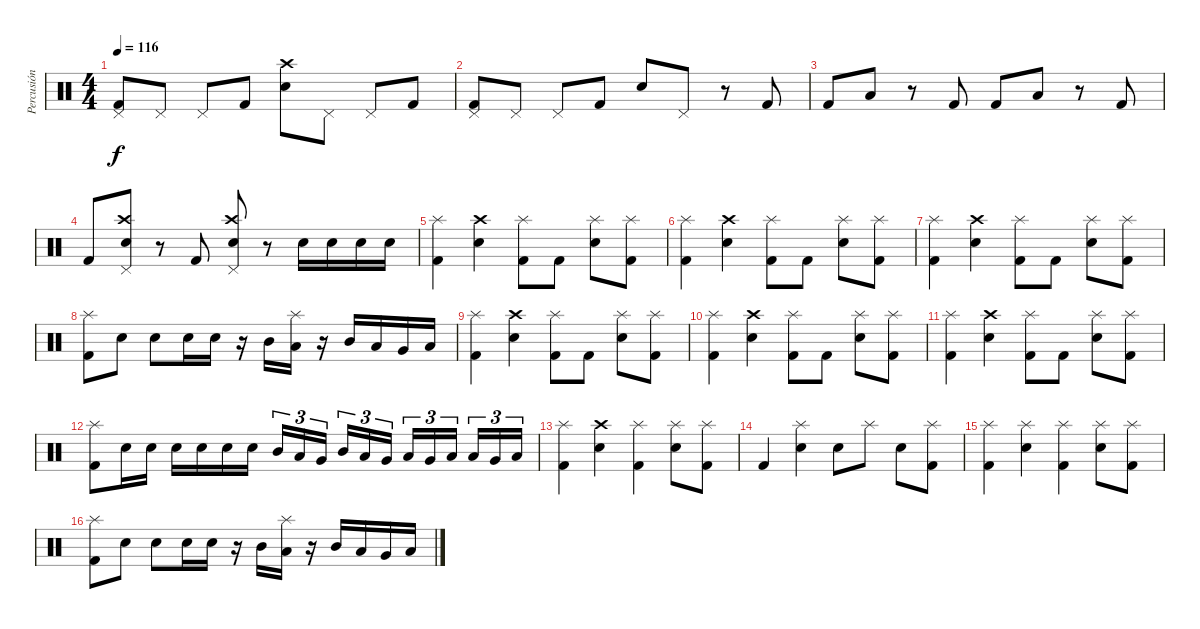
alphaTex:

\track ("Percusión" "Percusión") {instrument percussion}
\staff {score}
\articulation defaults
\ts (4 4)
\tempo 116
\clef neutral
\ks c
("Kick (hit) 2" "Pedal Hi-Hat (hit)").8{dy f} "Pedal Hi-Hat (hit)".8 "Pedal Hi-Hat (hit)".8 "Kick (hit) 2".8 ("Crash high (hit)" "Snare (hit) 2").8 "Pedal Hi-Hat (hit)".8 "Pedal Hi-Hat (hit)".8 "Kick (hit) 2".8 |
("Kick (hit) 2" "Pedal Hi-Hat (hit)").8 "Pedal Hi-Hat (hit)".8 "Pedal Hi-Hat (hit)".8 "Kick (hit) 2".8 "Snare (hit) 2".8 "Pedal Hi-Hat (hit)".8 r.8 "Kick (hit) 2".8 |
"Kick (hit) 2".8 "Low Floor Tom (hit)".8 r.8 "Kick (hit) 2".8 "Kick (hit) 2".8 "Low Floor Tom (hit)".8 r.8 "Kick (hit) 2".8 |
"Kick (hit) 2".8 ("Crash high (hit)" "Snare (hit) 2" "Pedal Hi-Hat (hit)").8 r.8 "Kick (hit) 2".8 ("Crash high (hit)" "Snare (hit) 2" "Pedal Hi-Hat (hit)").8 r.8 "Snare (hit) 2".16 "Snare (hit) 2".16 "Snare (hit) 2".16 "Snare (hit) 2".16 |
("Splash (hit)" "Kick (hit) 2").4 ("Crash high (hit)" "Snare (hit) 2").4 ("Splash (hit)" "Kick (hit) 2").8 "Kick (hit) 2".8 ("Splash (hit)" "Snare (hit) 2").8 ("Splash (hit)" "Kick (hit) 2").8 |
("Splash (hit)" "Kick (hit) 2").4 ("Crash high (hit)" "Snare (hit) 2").4 ("Splash (hit)" "Kick (hit) 2").8 "Kick (hit) 2".8 ("Splash (hit)" "Snare (hit) 2").8 ("Splash (hit)" "Kick (hit) 2").8 |
("Splash (hit)" "Kick (hit) 2").4 ("Crash high (hit)" "Snare (hit) 2").4 ("Splash (hit)" "Kick (hit) 2").8 "Kick (hit) 2".8 ("Splash (hit)" "Snare (hit) 2").8 ("Splash (hit)" "Kick (hit) 2").8 |
("Splash (hit)" "Kick (hit) 2").8 "Snare (hit) 2".8 "Snare (hit) 2".8 "Snare (hit) 2".16 "Snare (hit) 2".16 r.16 "Mid Tom (hit)".16 ("Low Tom (hit)" "Splash (hit)").16 r.16 "Mid Tom (hit)".16 "Low Tom (hit)".16 "Very Low Tom (hit)".16 "Low Floor Tom (hit)".16 |
("Splash (hit)" "Kick (hit) 2").4 ("Crash high (hit)" "Snare (hit) 2").4 ("Splash (hit)" "Kick (hit) 2").8 "Kick (hit) 2".8 ("Splash (hit)" "Snare (hit) 2").8 ("Splash (hit)" "Kick (hit) 2").8 |
("Splash (hit)" "Kick (hit) 2").4 ("Crash high (hit)" "Snare (hit) 2").4 ("Splash (hit)" "Kick (hit) 2").8 "Kick (hit) 2".8 ("Splash (hit)" "Snare (hit) 2").8 ("Splash (hit)" "Kick (hit) 2").8 |
("Splash (hit)" "Kick (hit) 2").4 ("Crash high (hit)" "Snare (hit) 2").4 ("Splash (hit)" "Kick (hit) 2").8 "Kick (hit) 2".8 ("Splash (hit)" "Snare (hit) 2").8 ("Splash (hit)" "Kick (hit) 2").8 |
("Splash (hit)" "Kick (hit) 2").8 "Snare (hit) 2".16 "Snare (hit) 2".16 "Snare (hit) 2".16 "Snare (hit) 2".16 "Snare (hit) 2".16 "Snare (hit) 2".16 "Mid Tom (hit)".16{tu (3 2)} "Low Tom (hit)".16{tu (3 2)} "Very Low Tom (hit)".16{tu (3 2)} "Mid Tom (hit)".16{tu (3 2)} "Low Tom (hit)".16{tu (3 2)} "Very Low Tom (hit)".16{tu (3 2)} "Low Tom (hit)".16{tu (3 2)} "Very Low Tom (hit)".16{tu (3 2)} "Low Floor Tom (hit)".16{tu (3 2)} "Low Tom (hit)".16{tu (3 2)} "Very Low Tom (hit)".16{tu (3 2)} "Low Floor Tom (hit)".16{tu (3 2)} |
("Splash (hit)" "Kick (hit) 2").4 ("Crash high (hit)" "Snare (hit) 2").4 ("Splash (hit)" "Kick (hit) 2").4 ("Splash (hit)" "Snare (hit) 2").8 ("Splash (hit)" "Kick (hit) 2").8 |
"Kick (hit) 2".4 ("Splash (hit)" "Snare (hit) 2").4 "Snare (hit) 2".8 "Splash (hit)".8 "Snare (hit) 2".8 ("Splash (hit)" "Kick (hit) 2").8 |
("Splash (hit)" "Kick (hit) 2").4 ("Splash (hit)" "Snare (hit) 2").4 ("Splash (hit)" "Kick (hit) 2").4 ("Splash (hit)" "Snare (hit) 2").8 ("Splash (hit)" "Kick (hit) 2").8 |
("Splash (hit)" "Kick (hit) 2").8 "Snare (hit) 2".8 "Snare (hit) 2".8 "Snare (hit) 2".16 "Snare (hit) 2".16 r.16 "Mid Tom (hit)".16 ("Low Tom (hit)" "Splash (hit)").16 r.16 "Mid Tom (hit)".16 "Low Tom (hit)".16 "Very Low Tom (hit)".16 "Low Floor Tom (hit)".16
